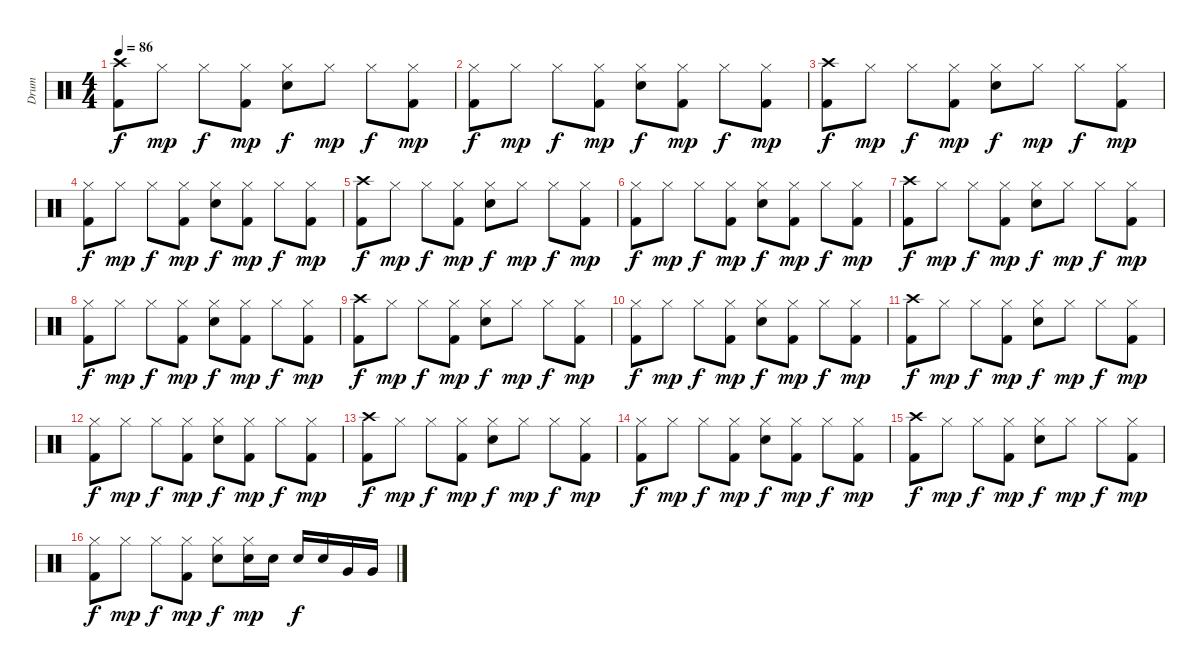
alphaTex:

\track ("Drum" "Drum") {instrument percussion}
\staff {score}
\articulation defaults
\ts (4 4)
\tempo 86
\clef neutral
\ks c
("Crash high (hit)" "Kick (hit) 2").8{dy f} "Hi-Hat (closed)".8{dy mp} "Hi-Hat (closed)".8{dy f} ("Hi-Hat (closed)" "Kick (hit) 2").8{dy mp} ("Hi-Hat (closed)" "Electric Snare (hit)").8{dy f} "Hi-Hat (closed)".8{dy mp} "Hi-Hat (closed)".8{dy f} ("Hi-Hat (closed)" "Kick (hit) 2").8{dy mp} |
("Hi-Hat (closed)" "Kick (hit) 2").8{dy f} "Hi-Hat (closed)".8{dy mp} "Hi-Hat (closed)".8{dy f} ("Hi-Hat (closed)" "Kick (hit) 2").8{dy mp} ("Hi-Hat (closed)" "Electric Snare (hit)").8{dy f} ("Hi-Hat (closed)" "Kick (hit) 2").8{dy mp} "Hi-Hat (closed)".8{dy f} ("Hi-Hat (closed)" "Kick (hit) 2").8{dy mp} |
("Crash high (hit)" "Kick (hit) 2").8{dy f} "Hi-Hat (closed)".8{dy mp} "Hi-Hat (closed)".8{dy f} ("Hi-Hat (closed)" "Kick (hit) 2").8{dy mp} ("Hi-Hat (closed)" "Electric Snare (hit)").8{dy f} "Hi-Hat (closed)".8{dy mp} "Hi-Hat (closed)".8{dy f} ("Hi-Hat (closed)" "Kick (hit) 2").8{dy mp} |
("Hi-Hat (closed)" "Kick (hit) 2").8{dy f} "Hi-Hat (closed)".8{dy mp} "Hi-Hat (closed)".8{dy f} ("Hi-Hat (closed)" "Kick (hit) 2").8{dy mp} ("Hi-Hat (closed)" "Electric Snare (hit)").8{dy f} ("Hi-Hat (closed)" "Kick (hit) 2").8{dy mp} "Hi-Hat (closed)".8{dy f} ("Hi-Hat (closed)" "Kick (hit) 2").8{dy mp} |
("Crash high (hit)" "Kick (hit) 2").8{dy f} "Hi-Hat (closed)".8{dy mp} "Hi-Hat (closed)".8{dy f} ("Hi-Hat (closed)" "Kick (hit) 2").8{dy mp} ("Hi-Hat (closed)" "Electric Snare (hit)").8{dy f} "Hi-Hat (closed)".8{dy mp} "Hi-Hat (closed)".8{dy f} ("Hi-Hat (closed)" "Kick (hit) 2").8{dy mp} |
("Hi-Hat (closed)" "Kick (hit) 2").8{dy f} "Hi-Hat (closed)".8{dy mp} "Hi-Hat (closed)".8{dy f} ("Hi-Hat (closed)" "Kick (hit) 2").8{dy mp} ("Hi-Hat (closed)" "Electric Snare (hit)").8{dy f} ("Hi-Hat (closed)" "Kick (hit) 2").8{dy mp} "Hi-Hat (closed)".8{dy f} ("Hi-Hat (closed)" "Kick (hit) 2").8{dy mp} |
("Crash high (hit)" "Kick (hit) 2").8{dy f} "Hi-Hat (closed)".8{dy mp} "Hi-Hat (closed)".8{dy f} ("Hi-Hat (closed)" "Kick (hit) 2").8{dy mp} ("Hi-Hat (closed)" "Electric Snare (hit)").8{dy f} "Hi-Hat (closed)".8{dy mp} "Hi-Hat (closed)".8{dy f} ("Hi-Hat (closed)" "Kick (hit) 2").8{dy mp} |
("Hi-Hat (closed)" "Kick (hit) 2").8{dy f} "Hi-Hat (closed)".8{dy mp} "Hi-Hat (closed)".8{dy f} ("Hi-Hat (closed)" "Kick (hit) 2").8{dy mp} ("Hi-Hat (closed)" "Electric Snare (hit)").8{dy f} ("Hi-Hat (closed)" "Kick (hit) 2").8{dy mp} "Hi-Hat (closed)".8{dy f} ("Hi-Hat (closed)" "Kick (hit) 2").8{dy mp} |
("Crash high (hit)" "Kick (hit) 2").8{dy f} "Hi-Hat (closed)".8{dy mp} "Hi-Hat (closed)".8{dy f} ("Hi-Hat (closed)" "Kick (hit) 2").8{dy mp} ("Hi-Hat (closed)" "Electric Snare (hit)").8{dy f} "Hi-Hat (closed)".8{dy mp} "Hi-Hat (closed)".8{dy f} ("Hi-Hat (closed)" "Kick (hit) 2").8{dy mp} |
("Hi-Hat (closed)" "Kick (hit) 2").8{dy f} "Hi-Hat (closed)".8{dy mp} "Hi-Hat (closed)".8{dy f} ("Hi-Hat (closed)" "Kick (hit) 2").8{dy mp} ("Hi-Hat (closed)" "Electric Snare (hit)").8{dy f} ("Hi-Hat (closed)" "Kick (hit) 2").8{dy mp} "Hi-Hat (closed)".8{dy f} ("Hi-Hat (closed)" "Kick (hit) 2").8{dy mp} |
("Crash high (hit)" "Kick (hit) 2").8{dy f} "Hi-Hat (closed)".8{dy mp} "Hi-Hat (closed)".8{dy f} ("Hi-Hat (closed)" "Kick (hit) 2").8{dy mp} ("Hi-Hat (closed)" "Electric Snare (hit)").8{dy f} "Hi-Hat (closed)".8{dy mp} "Hi-Hat (closed)".8{dy f} ("Hi-Hat (closed)" "Kick (hit) 2").8{dy mp} |
("Hi-Hat (closed)" "Kick (hit) 2").8{dy f} "Hi-Hat (closed)".8{dy mp} "Hi-Hat (closed)".8{dy f} ("Hi-Hat (closed)" "Kick (hit) 2").8{dy mp} ("Hi-Hat (closed)" "Electric Snare (hit)").8{dy f} ("Hi-Hat (closed)" "Kick (hit) 2").8{dy mp} "Hi-Hat (closed)".8{dy f} ("Hi-Hat (closed)" "Kick (hit) 2").8{dy mp} |
("Crash high (hit)" "Kick (hit) 2").8{dy f} "Hi-Hat (closed)".8{dy mp} "Hi-Hat (closed)".8{dy f} ("Hi-Hat (closed)" "Kick (hit) 2").8{dy mp} ("Hi-Hat (closed)" "Electric Snare (hit)").8{dy f} "Hi-Hat (closed)".8{dy mp} "Hi-Hat (closed)".8{dy f} ("Hi-Hat (closed)" "Kick (hit) 2").8{dy mp} |
("Hi-Hat (closed)" "Kick (hit) 2").8{dy f} "Hi-Hat (closed)".8{dy mp} "Hi-Hat (closed)".8{dy f} ("Hi-Hat (closed)" "Kick (hit) 2").8{dy mp} ("Hi-Hat (closed)" "Electric Snare (hit)").8{dy f} ("Hi-Hat (closed)" "Kick (hit) 2").8{dy mp} "Hi-Hat (closed)".8{dy f} ("Hi-Hat (closed)" "Kick (hit) 2").8{dy mp} |
("Crash high (hit)" "Kick (hit) 2").8{dy f} "Hi-Hat (closed)".8{dy mp} "Hi-Hat (closed)".8{dy f} ("Hi-Hat (closed)" "Kick (hit) 2").8{dy mp} ("Hi-Hat (closed)" "Electric Snare (hit)").8{dy f} "Hi-Hat (closed)".8{dy mp} "Hi-Hat (closed)".8{dy f} ("Hi-Hat (closed)" "Kick (hit) 2").8{dy mp} |
("Hi-Hat (closed)" "Kick (hit) 2").8{dy f} "Hi-Hat (closed)".8{dy mp} "Hi-Hat (closed)".8{dy f} ("Hi-Hat (closed)" "Kick (hit) 2").8{dy mp} ("Hi-Hat (closed)" "Electric Snare (hit)").8{dy f} ("Hi-Hat (closed)" "Electric Snare (hit)").16{dy mp} "Electric Snare (hit)".16 "Electric Snare (hit)".16{dy f} "Electric Snare (hit)".16 "Very Low Tom (hit)".16 "Very Low Tom (hit)".16
